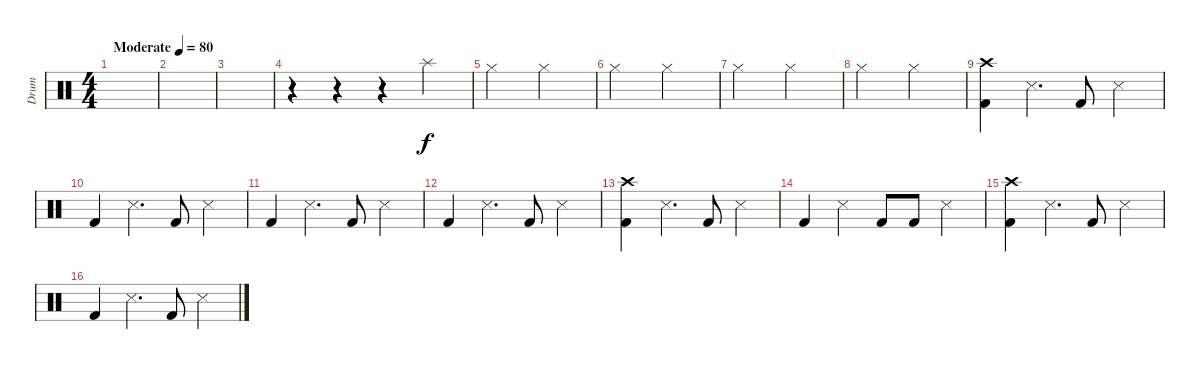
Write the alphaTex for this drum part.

\track ("Drum" "Drum") {instrument percussion}
\staff {score}
\articulation defaults
\ts (4 4)
\tempo (80 "Moderate")
\clef neutral
\ks c
|
|
|
r.4 r.4 r.4 "Splash (hit)".4 |
"Hi-Hat (closed)".2 "Hi-Hat (closed)".2 |
"Hi-Hat (closed)".2 "Hi-Hat (closed)".2 |
"Hi-Hat (closed)".2 "Hi-Hat (closed)".2 |
"Hi-Hat (closed)".2 "Hi-Hat (closed)".2 |
("Kick (hit) 2" "Crash high (hit)").4 "Snare (side stick) 3".4{d} "Kick (hit) 2".8 "Snare (side stick) 3".4 |
"Kick (hit) 2".4 "Snare (side stick) 3".4{d} "Kick (hit) 2".8 "Snare (side stick) 3".4 |
"Kick (hit) 2".4 "Snare (side stick) 3".4{d} "Kick (hit) 2".8 "Snare (side stick) 3".4 |
"Kick (hit) 2".4 "Snare (side stick) 3".4{d} "Kick (hit) 2".8 "Snare (side stick) 3".4 |
("Kick (hit) 2" "Crash high (hit)").4 "Snare (side stick) 3".4{d} "Kick (hit) 2".8 "Snare (side stick) 3".4 |
"Kick (hit) 2".4 "Snare (side stick) 3".4 "Kick (hit) 2".8 "Kick (hit) 2".8 "Snare (side stick) 3".4 |
("Kick (hit) 2" "Crash high (hit)").4 "Snare (side stick) 3".4{d} "Kick (hit) 2".8 "Snare (side stick) 3".4 |
"Kick (hit) 2".4 "Snare (side stick) 3".4{d} "Kick (hit) 2".8 "Snare (side stick) 3".4
